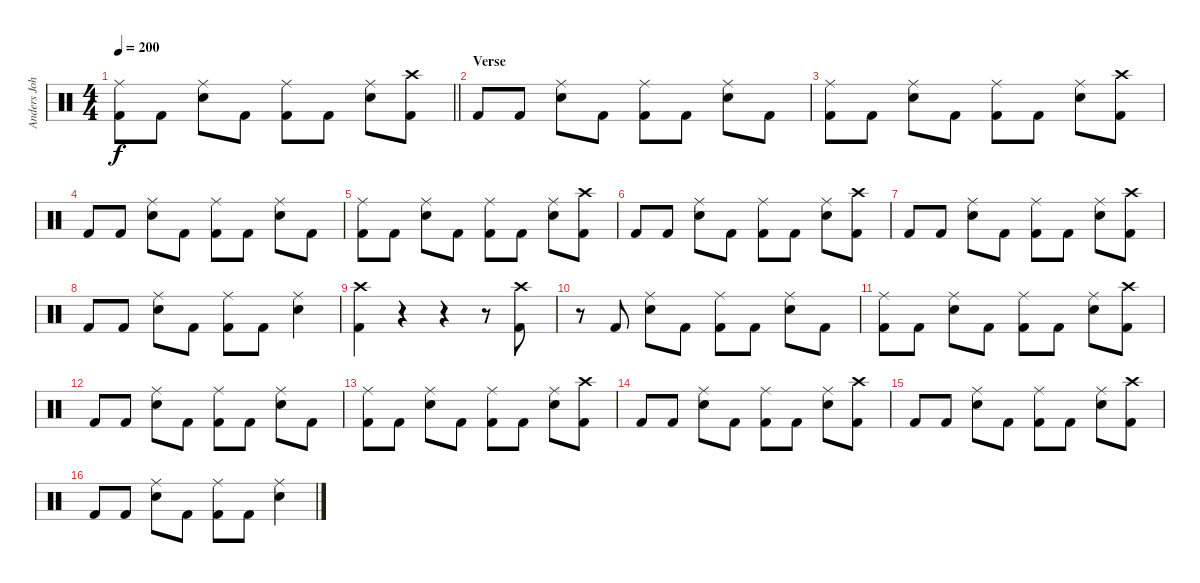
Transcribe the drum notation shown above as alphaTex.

\track ("Anders Johansson" "Anders Joh") {instrument percussion}
\staff {score}
\articulation defaults
\ts (4 4)
\tempo 200
\clef neutral
\barLineRight lightlight
\ks c
("Ride (middle)" "Kick (hit) 2").8{dy f} "Kick (hit) 2".8 ("Ride (middle)" "Snare (hit) 2").8 "Kick (hit) 2".8 ("Ride (middle)" "Kick (hit) 2").8 "Kick (hit) 2".8 ("Ride (middle)" "Snare (hit) 2").8 ("Crash high (hit)" "Kick (hit) 2").8 |
\section ("" "Verse")
"Kick (hit) 2".8 "Kick (hit) 2".8 ("Ride (middle)" "Snare (hit) 2").8 "Kick (hit) 2".8 ("Ride (middle)" "Kick (hit) 2").8 "Kick (hit) 2".8 ("Ride (middle)" "Snare (hit) 2").8 "Kick (hit) 2".8 |
("Ride (middle)" "Kick (hit) 2").8 "Kick (hit) 2".8 ("Ride (middle)" "Snare (hit) 2").8 "Kick (hit) 2".8 ("Ride (middle)" "Kick (hit) 2").8 "Kick (hit) 2".8 ("Ride (middle)" "Snare (hit) 2").8 ("Crash high (hit)" "Kick (hit) 2").8 |
"Kick (hit) 2".8 "Kick (hit) 2".8 ("Ride (middle)" "Snare (hit) 2").8 "Kick (hit) 2".8 ("Ride (middle)" "Kick (hit) 2").8 "Kick (hit) 2".8 ("Ride (middle)" "Snare (hit) 2").8 "Kick (hit) 2".8 |
("Ride (middle)" "Kick (hit) 2").8 "Kick (hit) 2".8 ("Ride (middle)" "Snare (hit) 2").8 "Kick (hit) 2".8 ("Ride (middle)" "Kick (hit) 2").8 "Kick (hit) 2".8 ("Ride (middle)" "Snare (hit) 2").8 ("Crash high (hit)" "Kick (hit) 2").8 |
"Kick (hit) 2".8 "Kick (hit) 2".8 ("Ride (middle)" "Snare (hit) 2").8 "Kick (hit) 2".8 ("Ride (middle)" "Kick (hit) 2").8 "Kick (hit) 2".8 ("Ride (middle)" "Snare (hit) 2").8 ("Crash high (hit)" "Kick (hit) 2").8 |
"Kick (hit) 2".8 "Kick (hit) 2".8 ("Ride (middle)" "Snare (hit) 2").8 "Kick (hit) 2".8 ("Ride (middle)" "Kick (hit) 2").8 "Kick (hit) 2".8 ("Ride (middle)" "Snare (hit) 2").8 ("Crash high (hit)" "Kick (hit) 2").8 |
"Kick (hit) 2".8 "Kick (hit) 2".8 ("Ride (middle)" "Snare (hit) 2").8 "Kick (hit) 2".8 ("Ride (middle)" "Kick (hit) 2").8 "Kick (hit) 2".8 ("Ride (middle)" "Snare (hit) 2").4 |
("Crash high (hit)" "Kick (hit) 2").4 r.4 r.4 r.8 ("Crash high (hit)" "Kick (hit) 2").8 |
r.8 "Kick (hit) 2".8 ("Ride (middle)" "Snare (hit) 2").8 "Kick (hit) 2".8 ("Ride (middle)" "Kick (hit) 2").8 "Kick (hit) 2".8 ("Ride (middle)" "Snare (hit) 2").8 "Kick (hit) 2".8 |
("Ride (middle)" "Kick (hit) 2").8 "Kick (hit) 2".8 ("Ride (middle)" "Snare (hit) 2").8 "Kick (hit) 2".8 ("Ride (middle)" "Kick (hit) 2").8 "Kick (hit) 2".8 ("Ride (middle)" "Snare (hit) 2").8 ("Crash high (hit)" "Kick (hit) 2").8 |
"Kick (hit) 2".8 "Kick (hit) 2".8 ("Ride (middle)" "Snare (hit) 2").8 "Kick (hit) 2".8 ("Ride (middle)" "Kick (hit) 2").8 "Kick (hit) 2".8 ("Ride (middle)" "Snare (hit) 2").8 "Kick (hit) 2".8 |
("Ride (middle)" "Kick (hit) 2").8 "Kick (hit) 2".8 ("Ride (middle)" "Snare (hit) 2").8 "Kick (hit) 2".8 ("Ride (middle)" "Kick (hit) 2").8 "Kick (hit) 2".8 ("Ride (middle)" "Snare (hit) 2").8 ("Crash high (hit)" "Kick (hit) 2").8 |
"Kick (hit) 2".8 "Kick (hit) 2".8 ("Ride (middle)" "Snare (hit) 2").8 "Kick (hit) 2".8 ("Ride (middle)" "Kick (hit) 2").8 "Kick (hit) 2".8 ("Ride (middle)" "Snare (hit) 2").8 ("Crash high (hit)" "Kick (hit) 2").8 |
"Kick (hit) 2".8 "Kick (hit) 2".8 ("Ride (middle)" "Snare (hit) 2").8 "Kick (hit) 2".8 ("Ride (middle)" "Kick (hit) 2").8 "Kick (hit) 2".8 ("Ride (middle)" "Snare (hit) 2").8 ("Crash high (hit)" "Kick (hit) 2").8 |
"Kick (hit) 2".8 "Kick (hit) 2".8 ("Ride (middle)" "Snare (hit) 2").8 "Kick (hit) 2".8 ("Ride (middle)" "Kick (hit) 2").8 "Kick (hit) 2".8 ("Ride (middle)" "Snare (hit) 2").4
